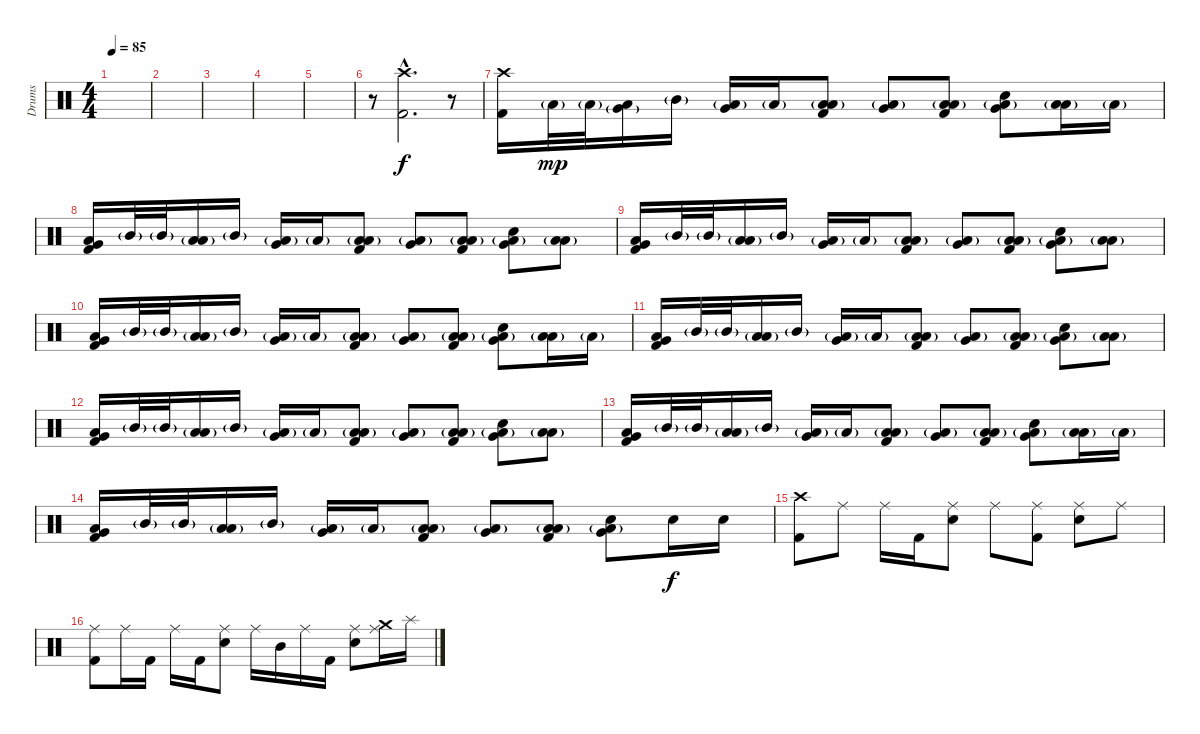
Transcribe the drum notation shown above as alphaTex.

\track ("Drums" "Drums") {instrument percussion}
\staff {score}
\articulation defaults
\ts (4 4)
\tempo 85
\clef neutral
\ks c
|
|
|
|
|
r.8 ("Crash high (hit)"{hac} "Kick (hit) 2"{hac}).2{d} r.8 |
("Crash high (hit)" "Kick (hit) 2").16 "Low Tom (hit)"{g}.32{dy mp} "Low Tom (hit)"{g}.32 ("Very Low Tom (hit)"{g} "Low Floor Tom (hit)").16 "Mid Tom (hit)"{g}.16 ("Low Tom (hit)"{g} "Very Low Tom (hit)").16 "Low Tom (hit)"{g}.16 ("Low Tom (hit)"{g} "Low Floor Tom (hit)" "Kick (hit) 2").8 ("Low Tom (hit)"{g} "Very Low Tom (hit)").8 ("Low Tom (hit)"{g} "Low Floor Tom (hit)" "Kick (hit) 2").8 ("Low Tom (hit)"{g} "Electric Snare (hit)" "Very Low Tom (hit)").8 ("Low Tom (hit)"{g} "Low Floor Tom (hit)").16 "Low Tom (hit)"{g}.16 |
("Low Floor Tom (hit)" "Very Low Tom (hit)" "Kick (hit) 2").16 "Mid Tom (hit)"{g}.32 "Mid Tom (hit)"{g}.32 ("Low Tom (hit)"{g} "Low Floor Tom (hit)").16 "Mid Tom (hit)"{g}.16 ("Low Tom (hit)"{g} "Very Low Tom (hit)").16 "Low Tom (hit)"{g}.16 ("Low Tom (hit)"{g} "Low Floor Tom (hit)" "Kick (hit) 2").8 ("Low Tom (hit)"{g} "Very Low Tom (hit)").8 ("Low Tom (hit)"{g} "Low Floor Tom (hit)" "Kick (hit) 2").8 ("Low Tom (hit)"{g} "Electric Snare (hit)" "Very Low Tom (hit)").8 ("Low Tom (hit)"{g} "Low Floor Tom (hit)").8 |
("Low Tom (hit)" "Very Low Tom (hit)" "Kick (hit) 2").16 "Mid Tom (hit)"{g}.32 "Mid Tom (hit)"{g}.32 ("Low Tom (hit)"{g} "Low Floor Tom (hit)").16 "Mid Tom (hit)"{g}.16 ("Low Tom (hit)"{g} "Very Low Tom (hit)").16 "Low Tom (hit)"{g}.16 ("Low Tom (hit)"{g} "Low Floor Tom (hit)" "Kick (hit) 2").8 ("Low Tom (hit)"{g} "Very Low Tom (hit)").8 ("Low Tom (hit)"{g} "Low Floor Tom (hit)" "Kick (hit) 2").8 ("Low Tom (hit)"{g} "Electric Snare (hit)" "Very Low Tom (hit)").8 ("Low Tom (hit)"{g} "Low Floor Tom (hit)").8 |
("Low Tom (hit)" "Very Low Tom (hit)" "Kick (hit) 2").16 "Mid Tom (hit)"{g}.32 "Mid Tom (hit)"{g}.32 ("Low Tom (hit)"{g} "Low Floor Tom (hit)").16 "Mid Tom (hit)"{g}.16 ("Low Tom (hit)"{g} "Very Low Tom (hit)").16 "Low Tom (hit)"{g}.16 ("Low Tom (hit)"{g} "Low Floor Tom (hit)" "Kick (hit) 2").8 ("Low Tom (hit)"{g} "Very Low Tom (hit)").8 ("Low Tom (hit)"{g} "Low Floor Tom (hit)" "Kick (hit) 2").8 ("Low Tom (hit)"{g} "Electric Snare (hit)" "Very Low Tom (hit)").8 ("Low Tom (hit)"{g} "Low Floor Tom (hit)").16 "Low Tom (hit)"{g}.16 |
("Low Tom (hit)" "Very Low Tom (hit)" "Kick (hit) 2").16 "Mid Tom (hit)"{g}.32 "Mid Tom (hit)"{g}.32 ("Low Tom (hit)"{g} "Low Floor Tom (hit)").16 "Mid Tom (hit)"{g}.16 ("Low Tom (hit)"{g} "Very Low Tom (hit)").16 "Low Tom (hit)"{g}.16 ("Low Tom (hit)"{g} "Low Floor Tom (hit)" "Kick (hit) 2").8 ("Low Tom (hit)"{g} "Very Low Tom (hit)").8 ("Low Tom (hit)"{g} "Low Floor Tom (hit)" "Kick (hit) 2").8 ("Low Tom (hit)"{g} "Electric Snare (hit)" "Very Low Tom (hit)").8 ("Low Tom (hit)"{g} "Low Floor Tom (hit)").8 |
("Low Tom (hit)" "Very Low Tom (hit)" "Kick (hit) 2").16 "Mid Tom (hit)"{g}.32 "Mid Tom (hit)"{g}.32 ("Low Tom (hit)"{g} "Low Floor Tom (hit)").16 "Mid Tom (hit)"{g}.16 ("Low Tom (hit)"{g} "Very Low Tom (hit)").16 "Low Tom (hit)"{g}.16 ("Low Tom (hit)"{g} "Low Floor Tom (hit)" "Kick (hit) 2").8 ("Low Tom (hit)"{g} "Very Low Tom (hit)").8 ("Low Tom (hit)"{g} "Low Floor Tom (hit)" "Kick (hit) 2").8 ("Low Tom (hit)"{g} "Electric Snare (hit)" "Very Low Tom (hit)").8 ("Low Tom (hit)"{g} "Low Floor Tom (hit)").8 |
("Low Tom (hit)" "Very Low Tom (hit)" "Kick (hit) 2").16 "Mid Tom (hit)"{g}.32 "Mid Tom (hit)"{g}.32 ("Low Tom (hit)"{g} "Low Floor Tom (hit)").16 "Mid Tom (hit)"{g}.16 ("Low Tom (hit)"{g} "Very Low Tom (hit)").16 "Low Tom (hit)"{g}.16 ("Low Tom (hit)"{g} "Low Floor Tom (hit)" "Kick (hit) 2").8 ("Low Tom (hit)"{g} "Very Low Tom (hit)").8 ("Low Tom (hit)"{g} "Low Floor Tom (hit)" "Kick (hit) 2").8 ("Low Tom (hit)"{g} "Electric Snare (hit)" "Very Low Tom (hit)").8 ("Low Tom (hit)"{g} "Low Floor Tom (hit)").16 "Low Tom (hit)"{g}.16 |
("Low Tom (hit)" "Very Low Tom (hit)" "Kick (hit) 2").16 "Mid Tom (hit)"{g}.32 "Mid Tom (hit)"{g}.32 ("Low Tom (hit)"{g} "Low Floor Tom (hit)").16 "Mid Tom (hit)"{g}.16 ("Low Tom (hit)"{g} "Very Low Tom (hit)").16 "Low Tom (hit)"{g}.16 ("Low Tom (hit)"{g} "Low Floor Tom (hit)" "Kick (hit) 2").8 ("Low Tom (hit)"{g} "Very Low Tom (hit)").8 ("Low Tom (hit)"{g} "Low Floor Tom (hit)" "Kick (hit) 2").8 ("Low Tom (hit)"{g} "Electric Snare (hit)" "Very Low Tom (hit)").8 "Electric Snare (hit)".16{dy f} "Electric Snare (hit)".16 |
("Crash high (hit)" "Kick (hit) 2").8 "Ride (middle)".8 "Ride (middle)".16 "Kick (hit) 2".16 ("Ride (middle)" "Electric Snare (hit)").8 "Ride (middle)".8 ("Ride (middle)" "Kick (hit) 2").8 ("Ride (middle)" "Electric Snare (hit)").8 "Ride (middle)".8 |
("Ride (middle)" "Kick (hit) 2").8 "Ride (middle)".16 "Kick (hit) 2".16 "Ride (middle)".16 "Kick (hit) 2".16 ("Ride (middle)" "Electric Snare (hit)").8 "Ride (middle)".16 "Mid Tom (hit)".16 "Ride (middle)".16 "Kick (hit) 2".16 ("Ride (middle)" "Electric Snare (hit)").8 ("Crash medium (hit)" "Ride (middle)").16 "Splash (hit)".16
